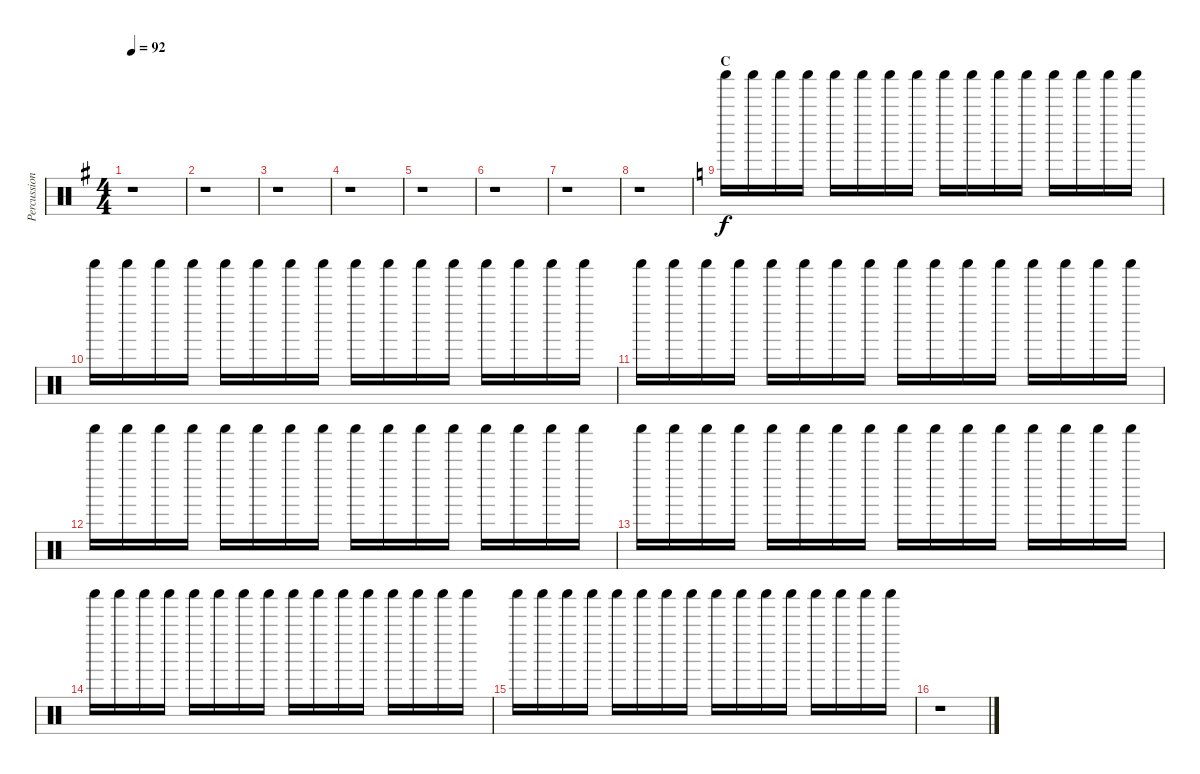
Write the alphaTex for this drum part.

\track ("Percussions" "Percussion") {instrument percussion}
\staff {score}
\articulation defaults
\ts (4 4)
\tempo 92
\clef neutral
\ks g
r.1{dy f} |
r.1 |
r.1 |
r.1 |
r.1 |
r.1 |
r.1 |
r.1 |
\section ("" "C")
\ks c "Shaker (hit)".16 "Shaker (hit)".16 "Shaker (hit)".16 "Shaker (hit)".16 "Shaker (hit)".16 "Shaker (hit)".16 "Shaker (hit)".16 "Shaker (hit)".16 "Shaker (hit)".16 "Shaker (hit)".16 "Shaker (hit)".16 "Shaker (hit)".16 "Shaker (hit)".16 "Shaker (hit)".16 "Shaker (hit)".16 "Shaker (hit)".16
|
"Shaker (hit)".16 "Shaker (hit)".16 "Shaker (hit)".16 "Shaker (hit)".16 "Shaker (hit)".16 "Shaker (hit)".16 "Shaker (hit)".16 "Shaker (hit)".16 "Shaker (hit)".16 "Shaker (hit)".16 "Shaker (hit)".16 "Shaker (hit)".16 "Shaker (hit)".16 "Shaker (hit)".16 "Shaker (hit)".16 "Shaker (hit)".16 |
"Shaker (hit)".16 "Shaker (hit)".16 "Shaker (hit)".16 "Shaker (hit)".16 "Shaker (hit)".16 "Shaker (hit)".16 "Shaker (hit)".16 "Shaker (hit)".16 "Shaker (hit)".16 "Shaker (hit)".16 "Shaker (hit)".16 "Shaker (hit)".16 "Shaker (hit)".16 "Shaker (hit)".16 "Shaker (hit)".16 "Shaker (hit)".16 |
"Shaker (hit)".16 "Shaker (hit)".16 "Shaker (hit)".16 "Shaker (hit)".16 "Shaker (hit)".16 "Shaker (hit)".16 "Shaker (hit)".16 "Shaker (hit)".16 "Shaker (hit)".16 "Shaker (hit)".16 "Shaker (hit)".16 "Shaker (hit)".16 "Shaker (hit)".16 "Shaker (hit)".16 "Shaker (hit)".16 "Shaker (hit)".16 |
"Shaker (hit)".16 "Shaker (hit)".16 "Shaker (hit)".16 "Shaker (hit)".16 "Shaker (hit)".16 "Shaker (hit)".16 "Shaker (hit)".16 "Shaker (hit)".16 "Shaker (hit)".16 "Shaker (hit)".16 "Shaker (hit)".16 "Shaker (hit)".16 "Shaker (hit)".16 "Shaker (hit)".16 "Shaker (hit)".16 "Shaker (hit)".16 |
"Shaker (hit)".16 "Shaker (hit)".16 "Shaker (hit)".16 "Shaker (hit)".16 "Shaker (hit)".16 "Shaker (hit)".16 "Shaker (hit)".16 "Shaker (hit)".16 "Shaker (hit)".16 "Shaker (hit)".16 "Shaker (hit)".16 "Shaker (hit)".16 "Shaker (hit)".16 "Shaker (hit)".16 "Shaker (hit)".16 "Shaker (hit)".16 |
"Shaker (hit)".16 "Shaker (hit)".16 "Shaker (hit)".16 "Shaker (hit)".16 "Shaker (hit)".16 "Shaker (hit)".16 "Shaker (hit)".16 "Shaker (hit)".16 "Shaker (hit)".16 "Shaker (hit)".16 "Shaker (hit)".16 "Shaker (hit)".16 "Shaker (hit)".16 "Shaker (hit)".16 "Shaker (hit)".16 "Shaker (hit)".16 |
r.1
